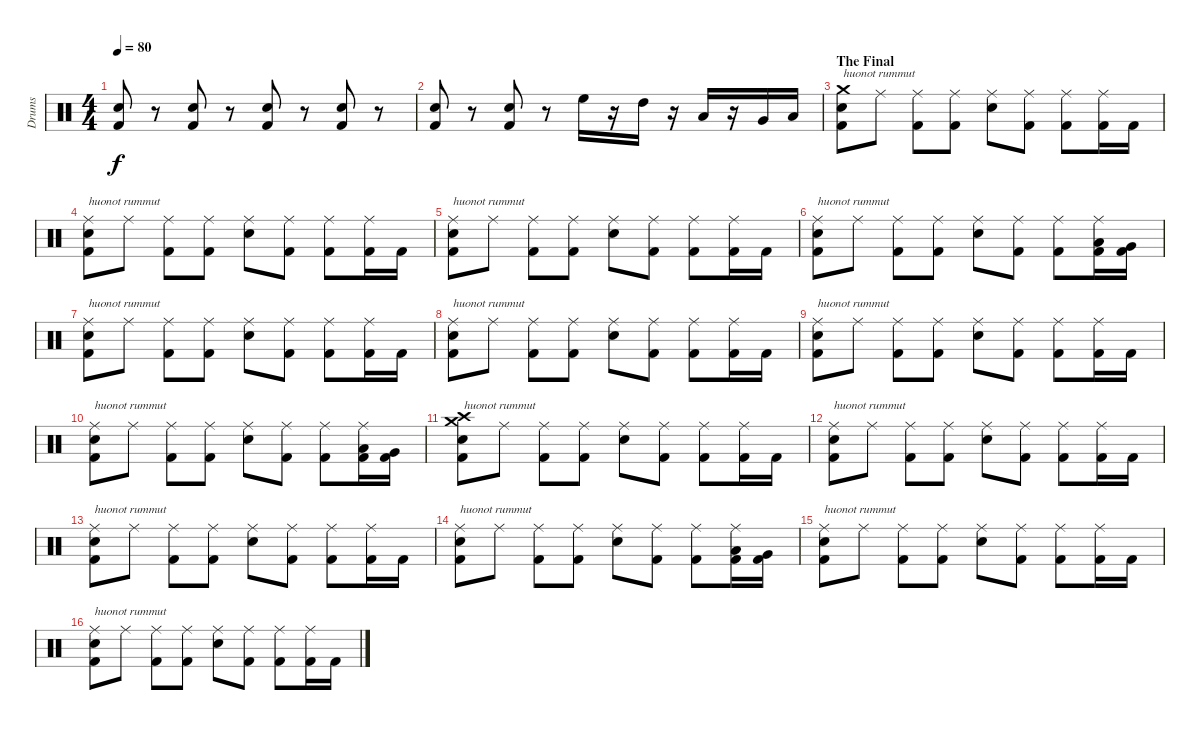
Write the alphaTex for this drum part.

\track ("Drums" "Drums") {instrument percussion}
\staff {score}
\articulation defaults
\ts (4 4)
\tempo 80
\clef neutral
\ks c
("Snare (hit) 2" "Kick (hit) 2").8{dy f} r.8 ("Snare (hit) 2" "Kick (hit) 2").8 r.8 ("Snare (hit) 2" "Kick (hit) 2").8 r.8 ("Snare (hit) 2" "Kick (hit) 2").8 r.8 |
("Snare (hit) 2" "Kick (hit) 2").8 r.8 ("Snare (hit) 2" "Kick (hit) 2").8 r.8 "High Floor Tom (hit)".16 r.16 "High Tom (hit)".16 r.16 "Low Tom (hit)".16 r.16 "Very Low Tom (hit)".16 "Low Floor Tom (hit)".16 |
\section ("" "The Final  ")
("Crash medium (hit)" "Snare (hit) 2" "Kick (hit) 2").8{txt "huonot rummut"} "Ride (middle)".8 ("Ride (middle)" "Kick (hit) 2").8 ("Ride (middle)" "Kick (hit) 2").8 ("Ride (middle)" "Snare (hit) 2").8 ("Ride (middle)" "Kick (hit) 2").8 ("Ride (middle)" "Kick (hit) 2").8 ("Ride (middle)" "Kick (hit) 2").16 "Kick (hit) 2".16 |
("Ride (middle)" "Snare (hit) 2" "Kick (hit) 2").8{txt "huonot rummut"} "Ride (middle)".8 ("Ride (middle)" "Kick (hit) 2").8 ("Ride (middle)" "Kick (hit) 2").8 ("Ride (middle)" "Snare (hit) 2").8 ("Ride (middle)" "Kick (hit) 2").8 ("Ride (middle)" "Kick (hit) 2").8 ("Ride (middle)" "Kick (hit) 2").16 "Kick (hit) 2".16 |
("Ride (middle)" "Snare (hit) 2" "Kick (hit) 2").8{txt "huonot rummut"} "Ride (middle)".8 ("Ride (middle)" "Kick (hit) 2").8 ("Ride (middle)" "Kick (hit) 2").8 ("Ride (middle)" "Snare (hit) 2").8 ("Ride (middle)" "Kick (hit) 2").8 ("Ride (middle)" "Kick (hit) 2").8 ("Ride (middle)" "Kick (hit) 2").16 "Kick (hit) 2".16 |
("Ride (middle)" "Snare (hit) 2" "Kick (hit) 2").8{txt "huonot rummut"} "Ride (middle)".8 ("Ride (middle)" "Kick (hit) 2").8 ("Ride (middle)" "Kick (hit) 2").8 ("Ride (middle)" "Snare (hit) 2").8 ("Ride (middle)" "Kick (hit) 2").8 ("Ride (middle)" "Kick (hit) 2").8 ("Ride (middle)" "Low Tom (hit)" "Kick (hit) 2").16 ("Very Low Tom (hit)" "Kick (hit) 2").16 |
("Ride (middle)" "Snare (hit) 2" "Kick (hit) 2").8{txt "huonot rummut"} "Ride (middle)".8 ("Ride (middle)" "Kick (hit) 2").8 ("Ride (middle)" "Kick (hit) 2").8 ("Ride (middle)" "Snare (hit) 2").8 ("Ride (middle)" "Kick (hit) 2").8 ("Ride (middle)" "Kick (hit) 2").8 ("Ride (middle)" "Kick (hit) 2").16 "Kick (hit) 2".16 |
("Ride (middle)" "Snare (hit) 2" "Kick (hit) 2").8{txt "huonot rummut"} "Ride (middle)".8 ("Ride (middle)" "Kick (hit) 2").8 ("Ride (middle)" "Kick (hit) 2").8 ("Ride (middle)" "Snare (hit) 2").8 ("Ride (middle)" "Kick (hit) 2").8 ("Ride (middle)" "Kick (hit) 2").8 ("Ride (middle)" "Kick (hit) 2").16 "Kick (hit) 2".16 |
("Ride (middle)" "Snare (hit) 2" "Kick (hit) 2").8{txt "huonot rummut"} "Ride (middle)".8 ("Ride (middle)" "Kick (hit) 2").8 ("Ride (middle)" "Kick (hit) 2").8 ("Ride (middle)" "Snare (hit) 2").8 ("Ride (middle)" "Kick (hit) 2").8 ("Ride (middle)" "Kick (hit) 2").8 ("Ride (middle)" "Kick (hit) 2").16 "Kick (hit) 2".16 |
("Ride (middle)" "Snare (hit) 2" "Kick (hit) 2").8{txt "huonot rummut"} "Ride (middle)".8 ("Ride (middle)" "Kick (hit) 2").8 ("Ride (middle)" "Kick (hit) 2").8 ("Ride (middle)" "Snare (hit) 2").8 ("Ride (middle)" "Kick (hit) 2").8 ("Ride (middle)" "Kick (hit) 2").8 ("Ride (middle)" "Low Tom (hit)" "Kick (hit) 2").16 ("Very Low Tom (hit)" "Kick (hit) 2").16 |
("Crash medium (hit)" "Crash high (hit)" "Snare (hit) 2" "Kick (hit) 2").8{txt "huonot rummut"} "Ride (middle)".8 ("Ride (middle)" "Kick (hit) 2").8 ("Ride (middle)" "Kick (hit) 2").8 ("Ride (middle)" "Snare (hit) 2").8 ("Ride (middle)" "Kick (hit) 2").8 ("Ride (middle)" "Kick (hit) 2").8 ("Ride (middle)" "Kick (hit) 2").16 "Kick (hit) 2".16 |
("Ride (middle)" "Snare (hit) 2" "Kick (hit) 2").8{txt "huonot rummut"} "Ride (middle)".8 ("Ride (middle)" "Kick (hit) 2").8 ("Ride (middle)" "Kick (hit) 2").8 ("Ride (middle)" "Snare (hit) 2").8 ("Ride (middle)" "Kick (hit) 2").8 ("Ride (middle)" "Kick (hit) 2").8 ("Ride (middle)" "Kick (hit) 2").16 "Kick (hit) 2".16 |
("Ride (middle)" "Snare (hit) 2" "Kick (hit) 2").8{txt "huonot rummut"} "Ride (middle)".8 ("Ride (middle)" "Kick (hit) 2").8 ("Ride (middle)" "Kick (hit) 2").8 ("Ride (middle)" "Snare (hit) 2").8 ("Ride (middle)" "Kick (hit) 2").8 ("Ride (middle)" "Kick (hit) 2").8 ("Ride (middle)" "Kick (hit) 2").16 "Kick (hit) 2".16 |
("Ride (middle)" "Snare (hit) 2" "Kick (hit) 2").8{txt "huonot rummut"} "Ride (middle)".8 ("Ride (middle)" "Kick (hit) 2").8 ("Ride (middle)" "Kick (hit) 2").8 ("Ride (middle)" "Snare (hit) 2").8 ("Ride (middle)" "Kick (hit) 2").8 ("Ride (middle)" "Kick (hit) 2").8 ("Ride (middle)" "Low Tom (hit)" "Kick (hit) 2").16 ("Very Low Tom (hit)" "Kick (hit) 2").16 |
("Ride (middle)" "Snare (hit) 2" "Kick (hit) 2").8{txt "huonot rummut"} "Ride (middle)".8 ("Ride (middle)" "Kick (hit) 2").8 ("Ride (middle)" "Kick (hit) 2").8 ("Ride (middle)" "Snare (hit) 2").8 ("Ride (middle)" "Kick (hit) 2").8 ("Ride (middle)" "Kick (hit) 2").8 ("Ride (middle)" "Kick (hit) 2").16 "Kick (hit) 2".16 |
("Ride (middle)" "Snare (hit) 2" "Kick (hit) 2").8{txt "huonot rummut"} "Ride (middle)".8 ("Ride (middle)" "Kick (hit) 2").8 ("Ride (middle)" "Kick (hit) 2").8 ("Ride (middle)" "Snare (hit) 2").8 ("Ride (middle)" "Kick (hit) 2").8 ("Ride (middle)" "Kick (hit) 2").8 ("Ride (middle)" "Kick (hit) 2").16 "Kick (hit) 2".16
